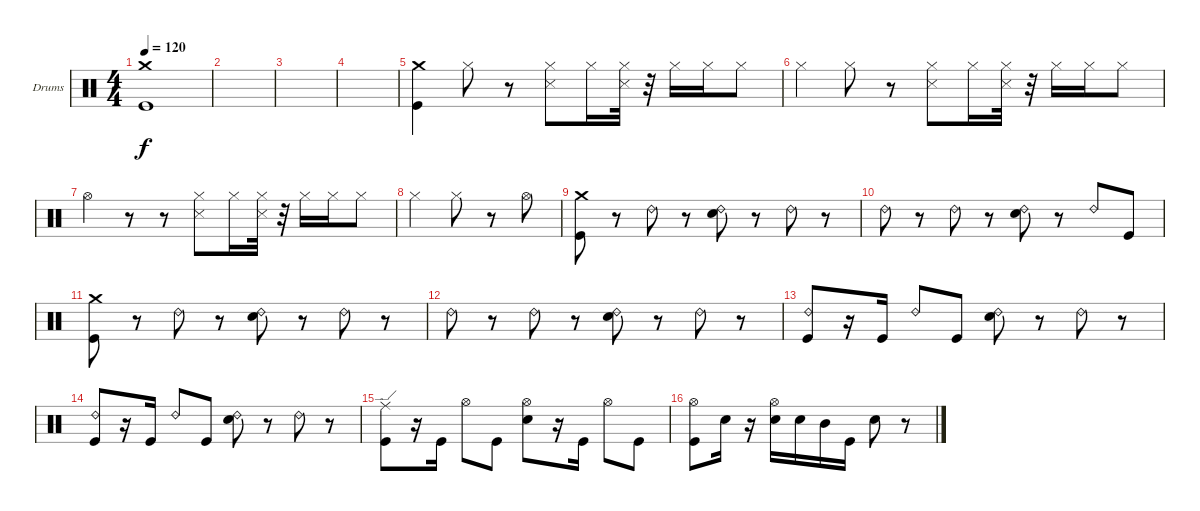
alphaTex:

\bracketExtendMode groupsimilarinstruments
\firstSystemTrackNameOrientation horizontal
\otherSystemsTrackNameOrientation horizontal
\track ("Drumkit" "Drums") {instrument percussion}
\staff {score}
\articulation defaults
\ts (4 4)
\tempo 120
\clef neutral
\ks c
("Kick (hit)" "Crash medium (hit)").1{dy f} |
|
|
|
("Crash medium (hit)" "Kick (hit)").4 "Hi-Hat (closed)".8 r.8 ("Hi-Hat (closed)" "Snare (side stick) 3").8 "Hi-Hat (closed)".16 ("Hi-Hat (closed)" "Snare (side stick) 3").32 r.32 "Hi-Hat (closed)".16 "Hi-Hat (closed)".16 "Hi-Hat (closed)".8 |
"Hi-Hat (closed)".4 "Hi-Hat (closed)".8 r.8 ("Hi-Hat (closed)" "Snare (side stick) 3").8 "Hi-Hat (closed)".16 ("Hi-Hat (closed)" "Snare (side stick) 3").32 r.32 "Hi-Hat (closed)".16 "Hi-Hat (closed)".16 "Hi-Hat (closed)".8 |
"Hi-Hat (open)".4 r.8 r.8 ("Hi-Hat (closed)" "Snare (side stick) 3").8 "Hi-Hat (closed)".16 ("Hi-Hat (closed)" "Snare (side stick) 3").32 r.32 "Hi-Hat (closed)".16 "Hi-Hat (closed)".16 "Hi-Hat (closed)".8 |
"Hi-Hat (closed)".4 "Hi-Hat (closed)".8 r.8 "Hi-Hat (open)".8 |
("Crash medium (hit)" "Kick (hit)").8 r.8 "Ride (bell) 2".8 r.8 ("Ride (bell) 2" "Snare (hit) 2").8 r.8 "Ride (bell) 2".8 r.8 |
"Ride (bell) 2".8 r.8 "Ride (bell) 2".8 r.8 ("Ride (bell) 2" "Snare (hit) 2").8 r.8 "Ride (bell) 2".8 "Kick (hit)".8 |
("Crash medium (hit)" "Kick (hit)").8 r.8 "Ride (bell) 2".8 r.8 ("Ride (bell) 2" "Snare (hit) 2").8 r.8 "Ride (bell) 2".8 r.8 |
"Ride (bell) 2".8 r.8 "Ride (bell) 2".8 r.8 ("Ride (bell) 2" "Snare (hit) 2").8 r.8 "Ride (bell) 2".8 r.8 |
("Ride (bell) 2" "Kick (hit)").8 r.16 "Kick (hit)".16 "Ride (bell) 2".8 "Kick (hit)".8 ("Ride (bell) 2" "Snare (hit) 2").8 r.8 "Ride (bell) 2".8 r.8 |
("Ride (bell) 2" "Kick (hit)").8 r.16 "Kick (hit)".16 "Ride (bell) 2".8 "Kick (hit)".8 ("Ride (bell) 2" "Snare (hit) 2").8 r.8 "Ride (bell) 2".8 r.8 |
("Kick (hit)" "Ride (edge)").8 r.16 "Kick (hit)".16 "Hi-Hat (open)".8 "Kick (hit)".8 ("Snare (hit) 2" "Hi-Hat (open)").8 r.16 "Kick (hit)".16 "Hi-Hat (open)".8 "Kick (hit)".8 |
("Kick (hit)" "Hi-Hat (open)").8 "Snare (hit) 2".16 r.16 ("Hi-Hat (open)" "Snare (hit) 2").16 "Snare (hit) 2".16 "Mid Tom (hit)".16 "Kick (hit)".16 "Snare (hit) 2".8 r.8
